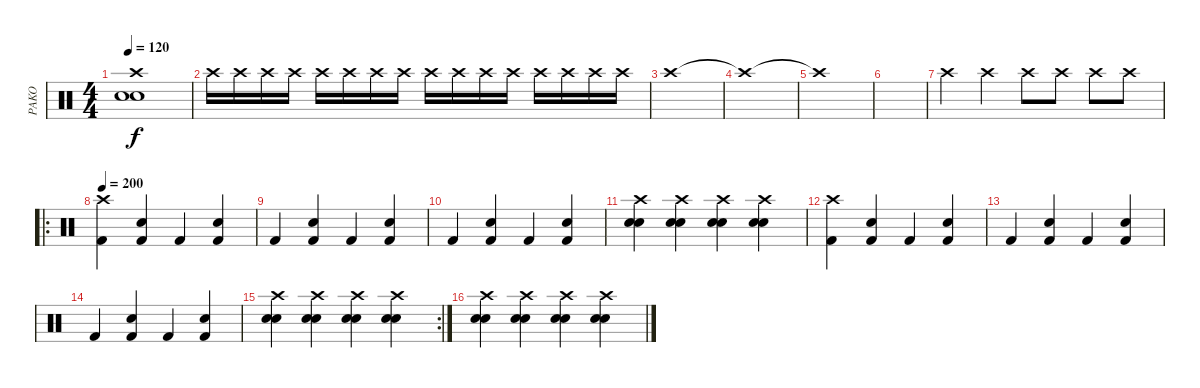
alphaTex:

\track ("PAKO" "PAKO") {instrument percussion}
\staff {score}
\articulation defaults
\ts (4 4)
\tempo 120
\clef neutral
\ks c
("Crash high (hit)" "Electric Snare (hit)" "Snare (hit) 2").1{dy f} |
"Crash high (hit)".16 "Crash high (hit)".16 "Crash high (hit)".16 "Crash high (hit)".16 "Crash high (hit)".16 "Crash high (hit)".16 "Crash high (hit)".16 "Crash high (hit)".16 "Crash high (hit)".16 "Crash high (hit)".16 "Crash high (hit)".16 "Crash high (hit)".16 "Crash high (hit)".16 "Crash high (hit)".16 "Crash high (hit)".16 "Crash high (hit)".16 |
"Crash high (hit)".1 |
"Crash high (hit)"{t}.1 |
"Crash high (hit)"{t}.1 |
|
"Crash high (hit)".4 "Crash high (hit)".4 "Crash high (hit)".8 "Crash high (hit)".8 "Crash high (hit)".8 "Crash high (hit)".8 |
\ro
\tempo 180
\tempo 200
("Crash high (hit)" "Kick (hit) 2").4 ("Electric Snare (hit)" "Kick (hit) 2").4 "Kick (hit) 2".4 ("Electric Snare (hit)" "Kick (hit) 2").4 |
"Kick (hit) 2".4 ("Electric Snare (hit)" "Kick (hit) 2").4 "Kick (hit) 2".4 ("Electric Snare (hit)" "Kick (hit) 2").4 |
"Kick (hit) 2".4 ("Electric Snare (hit)" "Kick (hit) 2").4 "Kick (hit) 2".4 ("Electric Snare (hit)" "Kick (hit) 2").4 |
("Crash high (hit)" "Electric Snare (hit)" "Snare (hit) 2").4 ("Crash high (hit)" "Electric Snare (hit)" "Snare (hit) 2").4 ("Crash high (hit)" "Electric Snare (hit)" "Snare (hit) 2").4 ("Crash high (hit)" "Electric Snare (hit)" "Snare (hit) 2").4 |
("Crash high (hit)" "Kick (hit) 2").4 ("Electric Snare (hit)" "Kick (hit) 2").4 "Kick (hit) 2".4 ("Electric Snare (hit)" "Kick (hit) 2").4 |
"Kick (hit) 2".4 ("Electric Snare (hit)" "Kick (hit) 2").4 "Kick (hit) 2".4 ("Electric Snare (hit)" "Kick (hit) 2").4 |
"Kick (hit) 2".4 ("Electric Snare (hit)" "Kick (hit) 2").4 "Kick (hit) 2".4 ("Electric Snare (hit)" "Kick (hit) 2").4 |
\rc 2
("Crash high (hit)" "Electric Snare (hit)" "Snare (hit) 2").4 ("Crash high (hit)" "Electric Snare (hit)" "Snare (hit) 2").4 ("Crash high (hit)" "Electric Snare (hit)" "Snare (hit) 2").4 ("Crash high (hit)" "Electric Snare (hit)" "Snare (hit) 2").4 |
("Crash high (hit)" "Electric Snare (hit)" "Snare (hit) 2").4 ("Crash high (hit)" "Electric Snare (hit)" "Snare (hit) 2").4 ("Crash high (hit)" "Electric Snare (hit)" "Snare (hit) 2").4 ("Crash high (hit)" "Electric Snare (hit)" "Snare (hit) 2").4
